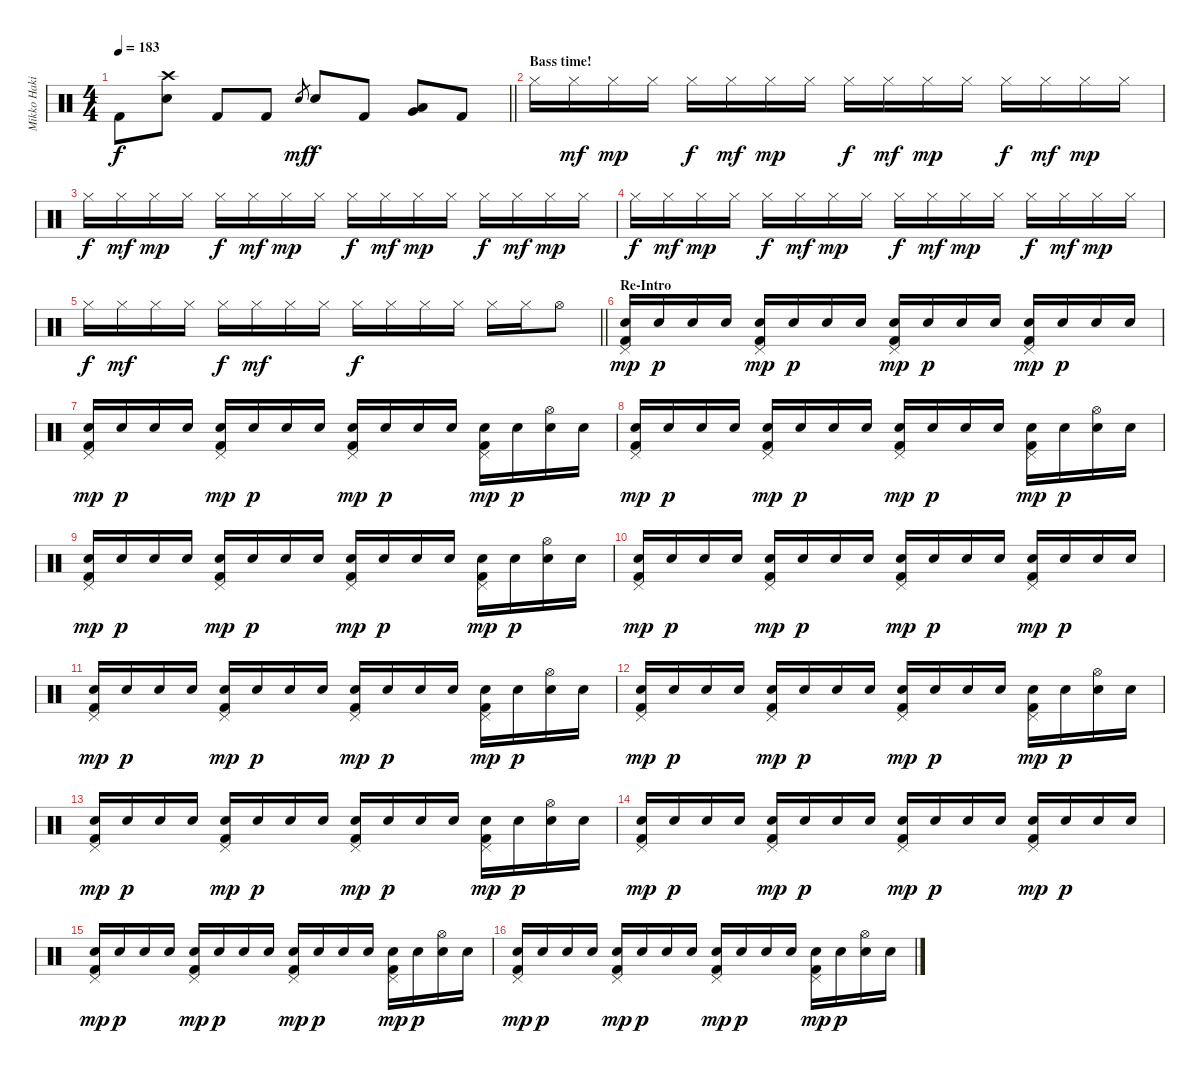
\track ("Mikko Hakila - Drums" "Mikko Haki") {instrument percussion}
\staff {score}
\articulation defaults
\ts (4 4)
\tempo 183
\clef neutral
\barLineRight lightlight
\ks c "Kick (hit) 2".8{dy f}
("Crash high (hit)" "Electric Snare (hit)").8 "Kick (hit) 2".8 "Kick (hit) 2".8 "Electric Snare (hit)".8{gr dy mf} "Electric Snare (hit)".8{dy f} "Kick (hit) 2".8 ("Low Tom (hit)" "Very Low Tom (hit)").8 "Kick (hit) 2".8 |
\section ("" "Bass time!")
"Hi-Hat (closed)".16{balance 12} "Hi-Hat (closed)".16{dy mf} "Hi-Hat (closed)".16{dy mp} "Hi-Hat (closed)".16 "Hi-Hat (closed)".16{dy f} "Hi-Hat (closed)".16{dy mf} "Hi-Hat (closed)".16{dy mp} "Hi-Hat (closed)".16 "Hi-Hat (closed)".16{dy f} "Hi-Hat (closed)".16{dy mf} "Hi-Hat (closed)".16{dy mp} "Hi-Hat (closed)".16 "Hi-Hat (closed)".16{dy f} "Hi-Hat (closed)".16{dy mf} "Hi-Hat (closed)".16{dy mp} "Hi-Hat (closed)".16 |
"Hi-Hat (closed)".16{dy f} "Hi-Hat (closed)".16{dy mf} "Hi-Hat (closed)".16{dy mp} "Hi-Hat (closed)".16 "Hi-Hat (closed)".16{dy f} "Hi-Hat (closed)".16{dy mf} "Hi-Hat (closed)".16{dy mp} "Hi-Hat (closed)".16 "Hi-Hat (closed)".16{dy f} "Hi-Hat (closed)".16{dy mf} "Hi-Hat (closed)".16{dy mp} "Hi-Hat (closed)".16 "Hi-Hat (closed)".16{dy f} "Hi-Hat (closed)".16{dy mf} "Hi-Hat (closed)".16{dy mp} "Hi-Hat (closed)".16 |
"Hi-Hat (closed)".16{dy f} "Hi-Hat (closed)".16{dy mf} "Hi-Hat (closed)".16{dy mp} "Hi-Hat (closed)".16 "Hi-Hat (closed)".16{dy f} "Hi-Hat (closed)".16{dy mf} "Hi-Hat (closed)".16{dy mp} "Hi-Hat (closed)".16 "Hi-Hat (closed)".16{dy f} "Hi-Hat (closed)".16{dy mf} "Hi-Hat (closed)".16{dy mp} "Hi-Hat (closed)".16 "Hi-Hat (closed)".16{dy f} "Hi-Hat (closed)".16{dy mf} "Hi-Hat (closed)".16{dy mp} "Hi-Hat (closed)".16 |
\barLineRight lightlight "Hi-Hat (closed)".16{dy f} "Hi-Hat (closed)".16{dy mf} "Hi-Hat (closed)".16 "Hi-Hat (closed)".16 "Hi-Hat (closed)".16{dy f} "Hi-Hat (closed)".16{dy mf} "Hi-Hat (closed)".16 "Hi-Hat (closed)".16 "Hi-Hat (closed)".16{dy f} "Hi-Hat (closed)".16 "Hi-Hat (closed)".16 "Hi-Hat (closed)".16 "Hi-Hat (closed)".16 "Hi-Hat (closed)".16 "Hi-Hat (open)".8
|
\section ("" "Re-Intro")
("Pedal Hi-Hat (hit)" "Electric Snare (hit)" "Kick (hit) 2").16{dy mp balance 8} "Electric Snare (hit)".16{dy p} "Electric Snare (hit)".16 "Electric Snare (hit)".16 ("Pedal Hi-Hat (hit)" "Electric Snare (hit)" "Kick (hit) 2").16{dy mp} "Electric Snare (hit)".16{dy p} "Electric Snare (hit)".16 "Electric Snare (hit)".16 ("Pedal Hi-Hat (hit)" "Electric Snare (hit)" "Kick (hit) 2").16{dy mp} "Electric Snare (hit)".16{dy p} "Electric Snare (hit)".16 "Electric Snare (hit)".16 ("Pedal Hi-Hat (hit)" "Electric Snare (hit)" "Kick (hit) 2").16{dy mp} "Electric Snare (hit)".16{dy p} "Electric Snare (hit)".16 "Electric Snare (hit)".16 |
("Pedal Hi-Hat (hit)" "Electric Snare (hit)" "Kick (hit) 2").16{dy mp} "Electric Snare (hit)".16{dy p} "Electric Snare (hit)".16 "Electric Snare (hit)".16 ("Pedal Hi-Hat (hit)" "Electric Snare (hit)" "Kick (hit) 2").16{dy mp} "Electric Snare (hit)".16{dy p} "Electric Snare (hit)".16 "Electric Snare (hit)".16 ("Pedal Hi-Hat (hit)" "Electric Snare (hit)" "Kick (hit) 2").16{dy mp} "Electric Snare (hit)".16{dy p} "Electric Snare (hit)".16 "Electric Snare (hit)".16 ("Pedal Hi-Hat (hit)" "Electric Snare (hit)" "Kick (hit) 2").16{dy mp} "Electric Snare (hit)".16{dy p} ("Hi-Hat (open)" "Electric Snare (hit)").16 "Electric Snare (hit)".16 |
("Pedal Hi-Hat (hit)" "Electric Snare (hit)" "Kick (hit) 2").16{dy mp} "Electric Snare (hit)".16{dy p} "Electric Snare (hit)".16 "Electric Snare (hit)".16 ("Pedal Hi-Hat (hit)" "Electric Snare (hit)" "Kick (hit) 2").16{dy mp} "Electric Snare (hit)".16{dy p} "Electric Snare (hit)".16 "Electric Snare (hit)".16 ("Pedal Hi-Hat (hit)" "Electric Snare (hit)" "Kick (hit) 2").16{dy mp} "Electric Snare (hit)".16{dy p} "Electric Snare (hit)".16 "Electric Snare (hit)".16 ("Pedal Hi-Hat (hit)" "Electric Snare (hit)" "Kick (hit) 2").16{dy mp} "Electric Snare (hit)".16{dy p} ("Hi-Hat (open)" "Electric Snare (hit)").16 "Electric Snare (hit)".16 |
("Pedal Hi-Hat (hit)" "Electric Snare (hit)" "Kick (hit) 2").16{dy mp} "Electric Snare (hit)".16{dy p} "Electric Snare (hit)".16 "Electric Snare (hit)".16 ("Pedal Hi-Hat (hit)" "Electric Snare (hit)" "Kick (hit) 2").16{dy mp} "Electric Snare (hit)".16{dy p} "Electric Snare (hit)".16 "Electric Snare (hit)".16 ("Pedal Hi-Hat (hit)" "Electric Snare (hit)" "Kick (hit) 2").16{dy mp} "Electric Snare (hit)".16{dy p} "Electric Snare (hit)".16 "Electric Snare (hit)".16 ("Pedal Hi-Hat (hit)" "Electric Snare (hit)" "Kick (hit) 2").16{dy mp} "Electric Snare (hit)".16{dy p} ("Hi-Hat (open)" "Electric Snare (hit)").16 "Electric Snare (hit)".16 |
("Pedal Hi-Hat (hit)" "Electric Snare (hit)" "Kick (hit) 2").16{dy mp} "Electric Snare (hit)".16{dy p} "Electric Snare (hit)".16 "Electric Snare (hit)".16 ("Pedal Hi-Hat (hit)" "Electric Snare (hit)" "Kick (hit) 2").16{dy mp} "Electric Snare (hit)".16{dy p} "Electric Snare (hit)".16 "Electric Snare (hit)".16 ("Pedal Hi-Hat (hit)" "Electric Snare (hit)" "Kick (hit) 2").16{dy mp} "Electric Snare (hit)".16{dy p} "Electric Snare (hit)".16 "Electric Snare (hit)".16 ("Pedal Hi-Hat (hit)" "Electric Snare (hit)" "Kick (hit) 2").16{dy mp} "Electric Snare (hit)".16{dy p} "Electric Snare (hit)".16 "Electric Snare (hit)".16 |
("Pedal Hi-Hat (hit)" "Electric Snare (hit)" "Kick (hit) 2").16{dy mp} "Electric Snare (hit)".16{dy p} "Electric Snare (hit)".16 "Electric Snare (hit)".16 ("Pedal Hi-Hat (hit)" "Electric Snare (hit)" "Kick (hit) 2").16{dy mp} "Electric Snare (hit)".16{dy p} "Electric Snare (hit)".16 "Electric Snare (hit)".16 ("Pedal Hi-Hat (hit)" "Electric Snare (hit)" "Kick (hit) 2").16{dy mp} "Electric Snare (hit)".16{dy p} "Electric Snare (hit)".16 "Electric Snare (hit)".16 ("Pedal Hi-Hat (hit)" "Electric Snare (hit)" "Kick (hit) 2").16{dy mp} "Electric Snare (hit)".16{dy p} ("Hi-Hat (open)" "Electric Snare (hit)").16 "Electric Snare (hit)".16 |
("Pedal Hi-Hat (hit)" "Electric Snare (hit)" "Kick (hit) 2").16{dy mp} "Electric Snare (hit)".16{dy p} "Electric Snare (hit)".16 "Electric Snare (hit)".16 ("Pedal Hi-Hat (hit)" "Electric Snare (hit)" "Kick (hit) 2").16{dy mp} "Electric Snare (hit)".16{dy p} "Electric Snare (hit)".16 "Electric Snare (hit)".16 ("Pedal Hi-Hat (hit)" "Electric Snare (hit)" "Kick (hit) 2").16{dy mp} "Electric Snare (hit)".16{dy p} "Electric Snare (hit)".16 "Electric Snare (hit)".16 ("Pedal Hi-Hat (hit)" "Electric Snare (hit)" "Kick (hit) 2").16{dy mp} "Electric Snare (hit)".16{dy p} ("Hi-Hat (open)" "Electric Snare (hit)").16 "Electric Snare (hit)".16 |
("Pedal Hi-Hat (hit)" "Electric Snare (hit)" "Kick (hit) 2").16{dy mp} "Electric Snare (hit)".16{dy p} "Electric Snare (hit)".16 "Electric Snare (hit)".16 ("Pedal Hi-Hat (hit)" "Electric Snare (hit)" "Kick (hit) 2").16{dy mp} "Electric Snare (hit)".16{dy p} "Electric Snare (hit)".16 "Electric Snare (hit)".16 ("Pedal Hi-Hat (hit)" "Electric Snare (hit)" "Kick (hit) 2").16{dy mp} "Electric Snare (hit)".16{dy p} "Electric Snare (hit)".16 "Electric Snare (hit)".16 ("Pedal Hi-Hat (hit)" "Electric Snare (hit)" "Kick (hit) 2").16{dy mp} "Electric Snare (hit)".16{dy p} ("Hi-Hat (open)" "Electric Snare (hit)").16 "Electric Snare (hit)".16 |
("Pedal Hi-Hat (hit)" "Electric Snare (hit)" "Kick (hit) 2").16{dy mp} "Electric Snare (hit)".16{dy p} "Electric Snare (hit)".16 "Electric Snare (hit)".16 ("Pedal Hi-Hat (hit)" "Electric Snare (hit)" "Kick (hit) 2").16{dy mp} "Electric Snare (hit)".16{dy p} "Electric Snare (hit)".16 "Electric Snare (hit)".16 ("Pedal Hi-Hat (hit)" "Electric Snare (hit)" "Kick (hit) 2").16{dy mp} "Electric Snare (hit)".16{dy p} "Electric Snare (hit)".16 "Electric Snare (hit)".16 ("Pedal Hi-Hat (hit)" "Electric Snare (hit)" "Kick (hit) 2").16{dy mp} "Electric Snare (hit)".16{dy p} "Electric Snare (hit)".16 "Electric Snare (hit)".16 |
("Pedal Hi-Hat (hit)" "Electric Snare (hit)" "Kick (hit) 2").16{dy mp} "Electric Snare (hit)".16{dy p} "Electric Snare (hit)".16 "Electric Snare (hit)".16 ("Pedal Hi-Hat (hit)" "Electric Snare (hit)" "Kick (hit) 2").16{dy mp} "Electric Snare (hit)".16{dy p} "Electric Snare (hit)".16 "Electric Snare (hit)".16 ("Pedal Hi-Hat (hit)" "Electric Snare (hit)" "Kick (hit) 2").16{dy mp} "Electric Snare (hit)".16{dy p} "Electric Snare (hit)".16 "Electric Snare (hit)".16 ("Pedal Hi-Hat (hit)" "Electric Snare (hit)" "Kick (hit) 2").16{dy mp} "Electric Snare (hit)".16{dy p} ("Hi-Hat (open)" "Electric Snare (hit)").16 "Electric Snare (hit)".16 |
("Pedal Hi-Hat (hit)" "Electric Snare (hit)" "Kick (hit) 2").16{dy mp} "Electric Snare (hit)".16{dy p} "Electric Snare (hit)".16 "Electric Snare (hit)".16 ("Pedal Hi-Hat (hit)" "Electric Snare (hit)" "Kick (hit) 2").16{dy mp} "Electric Snare (hit)".16{dy p} "Electric Snare (hit)".16 "Electric Snare (hit)".16 ("Pedal Hi-Hat (hit)" "Electric Snare (hit)" "Kick (hit) 2").16{dy mp} "Electric Snare (hit)".16{dy p} "Electric Snare (hit)".16 "Electric Snare (hit)".16 ("Pedal Hi-Hat (hit)" "Electric Snare (hit)" "Kick (hit) 2").16{dy mp} "Electric Snare (hit)".16{dy p} ("Hi-Hat (open)" "Electric Snare (hit)").16 "Electric Snare (hit)".16
